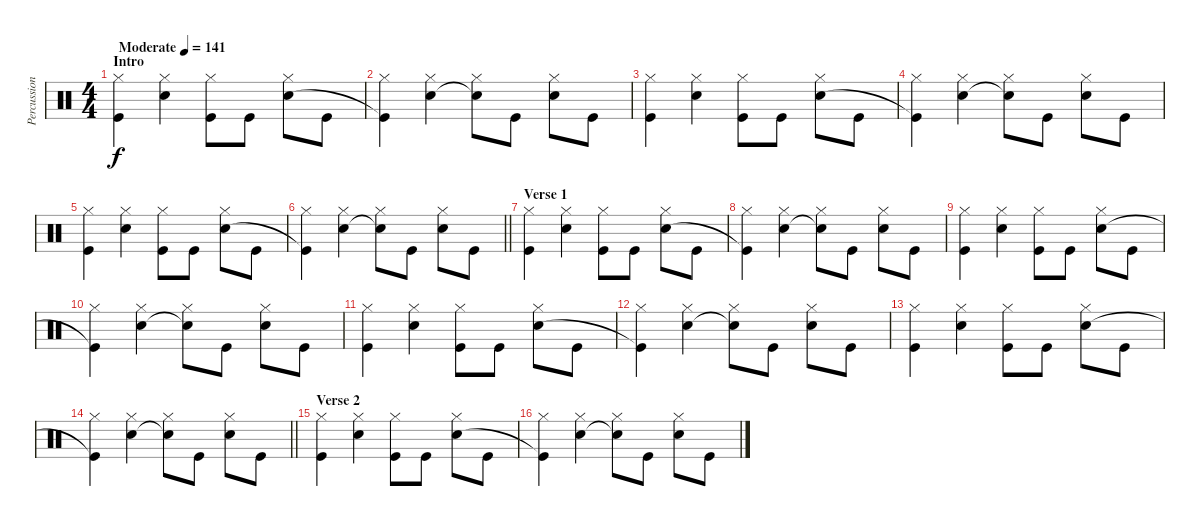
\track ("Percussion" "Percussion") {instrument percussion}
\staff {score}
\articulation defaults
\ts (4 4)
\section ("" "Intro")
\tempo (141 "Moderate")
\clef neutral
\ks c
("Kick (hit)" "Hi-Hat (closed)").4{dy f} ("Snare (hit) 2" "Hi-Hat (closed)").4 ("Hi-Hat (closed)" "Kick (hit)").8 "Kick (hit)".8 ("Hi-Hat (closed)" "Snare (hit) 2").8 "Kick (hit)".8 |
("Hi-Hat (closed)" "Kick (hit)"{t}).4 ("Hi-Hat (closed)" "Snare (hit) 2").4 ("Hi-Hat (closed)" "Snare (hit) 2"{t}).8 "Kick (hit)".8 ("Hi-Hat (closed)" "Snare (hit) 2").8 "Kick (hit)".8 |
("Kick (hit)" "Hi-Hat (closed)").4 ("Snare (hit) 2" "Hi-Hat (closed)").4 ("Hi-Hat (closed)" "Kick (hit)").8 "Kick (hit)".8 ("Hi-Hat (closed)" "Snare (hit) 2").8 "Kick (hit)".8 |
("Hi-Hat (closed)" "Kick (hit)"{t}).4 ("Hi-Hat (closed)" "Snare (hit) 2").4 ("Hi-Hat (closed)" "Snare (hit) 2"{t}).8 "Kick (hit)".8 ("Hi-Hat (closed)" "Snare (hit) 2").8 "Kick (hit)".8 |
("Kick (hit)" "Hi-Hat (closed)").4 ("Snare (hit) 2" "Hi-Hat (closed)").4 ("Hi-Hat (closed)" "Kick (hit)").8 "Kick (hit)".8 ("Hi-Hat (closed)" "Snare (hit) 2").8 "Kick (hit)".8 |
\barLineRight lightlight
("Hi-Hat (closed)" "Kick (hit)"{t}).4 ("Hi-Hat (closed)" "Snare (hit) 2").4 ("Hi-Hat (closed)" "Snare (hit) 2"{t}).8 "Kick (hit)".8 ("Hi-Hat (closed)" "Snare (hit) 2").8 "Kick (hit)".8 |
\section ("" "Verse 1")
("Kick (hit)" "Hi-Hat (closed)").4 ("Snare (hit) 2" "Hi-Hat (closed)").4 ("Hi-Hat (closed)" "Kick (hit)").8 "Kick (hit)".8 ("Hi-Hat (closed)" "Snare (hit) 2").8 "Kick (hit)".8 |
("Hi-Hat (closed)" "Kick (hit)"{t}).4 ("Hi-Hat (closed)" "Snare (hit) 2").4 ("Hi-Hat (closed)" "Snare (hit) 2"{t}).8 "Kick (hit)".8 ("Hi-Hat (closed)" "Snare (hit) 2").8 "Kick (hit)".8 |
("Kick (hit)" "Hi-Hat (closed)").4 ("Snare (hit) 2" "Hi-Hat (closed)").4 ("Hi-Hat (closed)" "Kick (hit)").8 "Kick (hit)".8 ("Hi-Hat (closed)" "Snare (hit) 2").8 "Kick (hit)".8 |
("Hi-Hat (closed)" "Kick (hit)"{t}).4 ("Hi-Hat (closed)" "Snare (hit) 2").4 ("Hi-Hat (closed)" "Snare (hit) 2"{t}).8 "Kick (hit)".8 ("Hi-Hat (closed)" "Snare (hit) 2").8 "Kick (hit)".8 |
("Kick (hit)" "Hi-Hat (closed)").4 ("Snare (hit) 2" "Hi-Hat (closed)").4 ("Hi-Hat (closed)" "Kick (hit)").8 "Kick (hit)".8 ("Hi-Hat (closed)" "Snare (hit) 2").8 "Kick (hit)".8 |
("Hi-Hat (closed)" "Kick (hit)"{t}).4 ("Hi-Hat (closed)" "Snare (hit) 2").4 ("Hi-Hat (closed)" "Snare (hit) 2"{t}).8 "Kick (hit)".8 ("Hi-Hat (closed)" "Snare (hit) 2").8 "Kick (hit)".8 |
("Kick (hit)" "Hi-Hat (closed)").4 ("Snare (hit) 2" "Hi-Hat (closed)").4 ("Hi-Hat (closed)" "Kick (hit)").8 "Kick (hit)".8 ("Hi-Hat (closed)" "Snare (hit) 2").8 "Kick (hit)".8 |
\barLineRight lightlight
("Hi-Hat (closed)" "Kick (hit)"{t}).4 ("Hi-Hat (closed)" "Snare (hit) 2").4 ("Hi-Hat (closed)" "Snare (hit) 2"{t}).8 "Kick (hit)".8 ("Hi-Hat (closed)" "Snare (hit) 2").8 "Kick (hit)".8 |
\section ("" "Verse 2")
("Kick (hit)" "Hi-Hat (closed)").4 ("Snare (hit) 2" "Hi-Hat (closed)").4 ("Hi-Hat (closed)" "Kick (hit)").8 "Kick (hit)".8 ("Hi-Hat (closed)" "Snare (hit) 2").8 "Kick (hit)".8 |
("Hi-Hat (closed)" "Kick (hit)"{t}).4 ("Hi-Hat (closed)" "Snare (hit) 2").4 ("Hi-Hat (closed)" "Snare (hit) 2"{t}).8 "Kick (hit)".8 ("Hi-Hat (closed)" "Snare (hit) 2").8 "Kick (hit)".8
